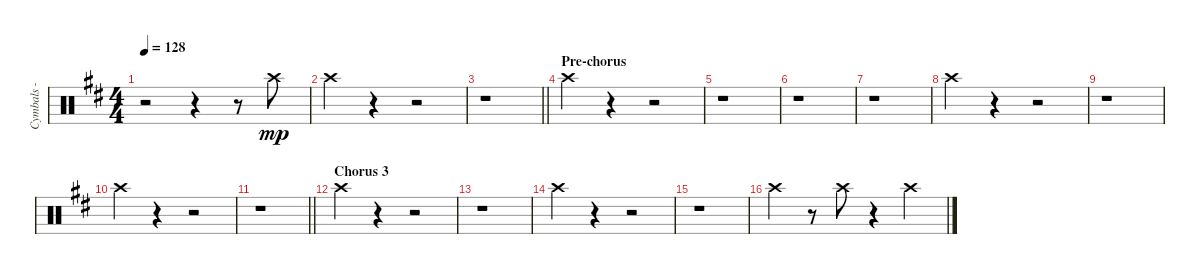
\track ("Cymbals - crash" "Cymbals - ") {instrument percussion}
\staff {score}
\articulation defaults
\ts (4 4)
\tempo 128
\clef neutral
\ks bminor
r.2{dy mp} r.4 r.8 "Crash high (hit)".8 |
"Crash high (hit)".4 r.4 r.2 |
\barLineRight lightlight
r.1 |
\section ("" "Pre-chorus")
"Crash high (hit)".4 r.4 r.2 |
r.1 |
r.1 |
r.1 |
"Crash high (hit)".4 r.4 r.2 |
r.1 |
"Crash high (hit)".4 r.4 r.2 |
\barLineRight lightlight
r.1 |
\section ("" "Chorus 3")
"Crash high (hit)".4 r.4 r.2 |
r.1 |
"Crash high (hit)".4 r.4 r.2 |
r.1 |
"Crash high (hit)".4 r.8 "Crash high (hit)".8 r.4 "Crash high (hit)".4
